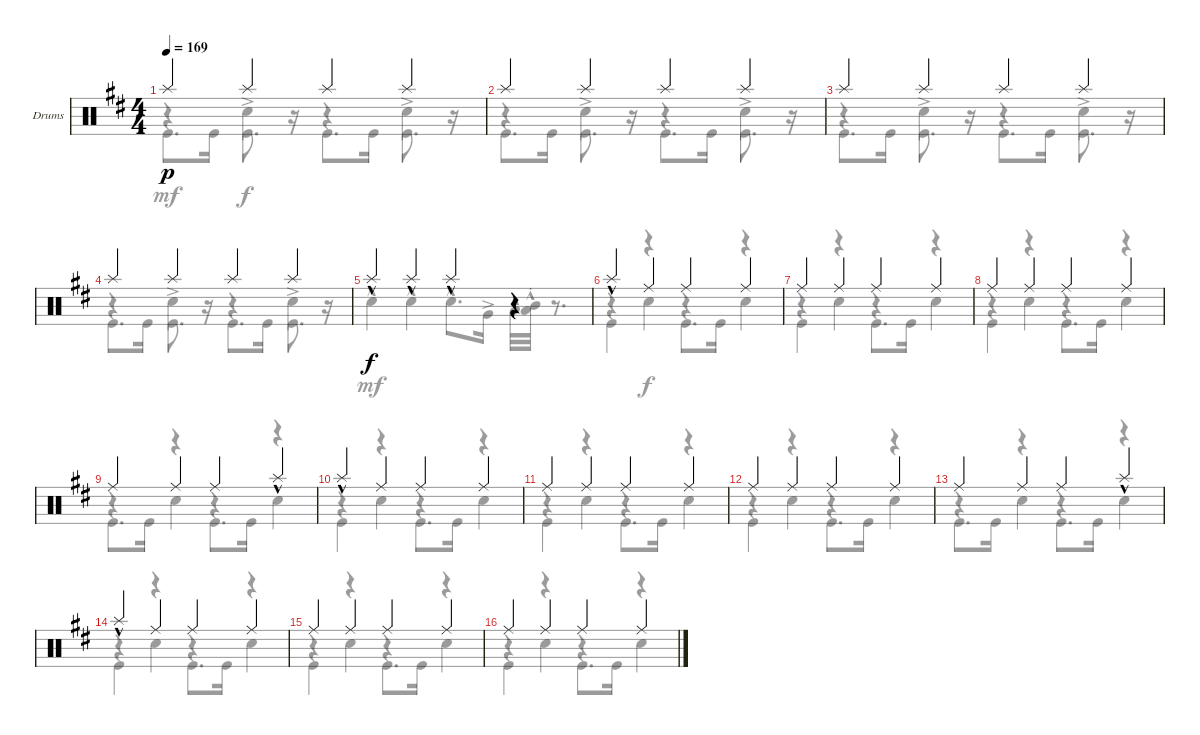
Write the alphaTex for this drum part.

\defaultSystemsLayout 4
\bracketExtendMode groupsimilarinstruments
\firstSystemTrackNameOrientation horizontal
\otherSystemsTrackNameOrientation horizontal
\track ("Drumkit (Wolf Gemora)" "Drums") {instrument percussion}
\staff {score}
\articulation defaults
\voice
\ts (4 4)
\tempo 169
\clef neutral
\ks bminor "Splash (hit)".4{dy p} "Splash (hit)".4 "Splash (hit)".4 "Splash (hit)".4
|
"Splash (hit)".4 "Splash (hit)".4 "Splash (hit)".4 "Splash (hit)".4 |
"Splash (hit)".4 "Splash (hit)".4 "Splash (hit)".4 "Splash (hit)".4 |
"Splash (hit)".4 "Splash (hit)".4 "Splash (hit)".4 "Splash (hit)".4 |
"Splash (hit)"{hac}.4{dy f} "Splash (hit)"{hac}.4 "Splash (hit)"{hac}.4 r.4 |
"Splash (hit)"{hac}.4 "Ride (middle)".4 "Ride (middle)".4 "Ride (middle)".4 |
"Ride (middle)".4 "Ride (middle)".4 "Ride (middle)".4 "Ride (middle)".4 |
"Ride (middle)".4 "Ride (middle)".4 "Ride (middle)".4 "Ride (middle)".4 |
"Ride (middle)".4 "Ride (middle)".4 "Ride (middle)".4 "Splash (hit)"{hac}.4 |
"Splash (hit)"{hac}.4 "Ride (middle)".4 "Ride (middle)".4 "Ride (middle)".4 |
"Ride (middle)".4 "Ride (middle)".4 "Ride (middle)".4 "Ride (middle)".4 |
"Ride (middle)".4 "Ride (middle)".4 "Ride (middle)".4 "Ride (middle)".4 |
"Ride (middle)".4 "Ride (middle)".4 "Ride (middle)".4 "Splash (hit)"{hac}.4 |
"Splash (hit)"{hac}.4 "Ride (middle)".4 "Ride (middle)".4 "Ride (middle)".4 |
"Ride (middle)".4 "Ride (middle)".4 "Ride (middle)".4 "Ride (middle)".4 |
"Ride (middle)".4 "Ride (middle)".4 "Ride (middle)".4 "Ride (middle)".4
\voice
\clef neutral
\ottava regular
\simile none
\ks bminor "Kick (hit)".8{d dy mf} "Kick (hit)".16 "Kick (hit)".8{d}
r.16 "Kick (hit)".8{d} "Kick (hit)".16 "Kick (hit)".8{d} r.16 |
"Kick (hit)".8{d} "Kick (hit)".16 "Kick (hit)".8{d} r.16 "Kick (hit)".8{d} "Kick (hit)".16 "Kick (hit)".8{d} r.16 |
"Kick (hit)".8{d} "Kick (hit)".16 "Kick (hit)".8{d} r.16 "Kick (hit)".8{d} "Kick (hit)".16 "Kick (hit)".8{d} r.16 |
"Kick (hit)".8{d} "Kick (hit)".16 "Kick (hit)".8{d} r.16 "Kick (hit)".8{d} "Kick (hit)".16 "Kick (hit)".8{d} r.16 |
|
"Kick (hit)".4 r.4 "Kick (hit)".8{d} "Kick (hit)".16 r.4 |
"Kick (hit)".4 r.4 "Kick (hit)".8{d} "Kick (hit)".16 r.4 |
"Kick (hit)".4 r.4 "Kick (hit)".8{d} "Kick (hit)".16 r.4 |
"Kick (hit)".8{d} "Kick (hit)".16 r.4 "Kick (hit)".8{d} "Kick (hit)".16 r.4 |
"Kick (hit)".4 r.4 "Kick (hit)".8{d} "Kick (hit)".16 r.4 |
"Kick (hit)".4 r.4 "Kick (hit)".8{d} "Kick (hit)".16 r.4 |
"Kick (hit)".4 r.4 "Kick (hit)".8{d} "Kick (hit)".16 r.4 |
"Kick (hit)".8{d} "Kick (hit)".16 r.4 "Kick (hit)".8{d} "Kick (hit)".16 r.4 |
"Kick (hit)".4 r.4 "Kick (hit)".8{d} "Kick (hit)".16 r.4 |
"Kick (hit)".4 r.4 "Kick (hit)".8{d} "Kick (hit)".16 r.4 |
"Kick (hit)".4 r.4 "Kick (hit)".8{d} "Kick (hit)".16 r.4
\voice
\clef neutral
\ottava regular
\simile none
\ks bminor
r.4{dy f} "Snare (hit) 2"{ac}.4 r.4 "Snare (hit) 2"{ac}.4 |
r.4 "Snare (hit) 2"{ac}.4 r.4 "Snare (hit) 2"{ac}.4 |
r.4 "Snare (hit) 2"{ac}.4 r.4 "Snare (hit) 2"{ac}.4 |
r.4 "Snare (hit) 2"{ac}.4 r.4 "Snare (hit) 2"{ac}.4 |
"Snare (hit) 2"{hac}.4{dy mf} "Snare (hit) 2"{hac}.4 "Snare (hit) 2"{hac}.8{d} "Very Low Tom (hit)"{ac}.16 "Low Tom (hit)"{hac}.32 ("Low Tom (hit)"{hac} "Mid Tom (hit)"{hac st}).32 r.8{d} |
r.4 "Snare (hit) 2".4{dy f} r.4 "Snare (hit) 2".4 |
r.4 "Snare (hit) 2".4 r.4 "Snare (hit) 2".4 |
r.4 "Snare (hit) 2".4 r.4 "Snare (hit) 2".4 |
r.4 "Snare (hit) 2".4 r.4 "Snare (hit) 2".4 |
r.4 "Snare (hit) 2".4 r.4 "Snare (hit) 2".4 |
r.4 "Snare (hit) 2".4 r.4 "Snare (hit) 2".4 |
r.4 "Snare (hit) 2".4 r.4 "Snare (hit) 2".4 |
r.4 "Snare (hit) 2".4 r.4 "Snare (hit) 2".4 |
r.4 "Snare (hit) 2".4 r.4 "Snare (hit) 2".4 |
r.4 "Snare (hit) 2".4 r.4 "Snare (hit) 2".4 |
r.4 "Snare (hit) 2".4 r.4 "Snare (hit) 2".4
